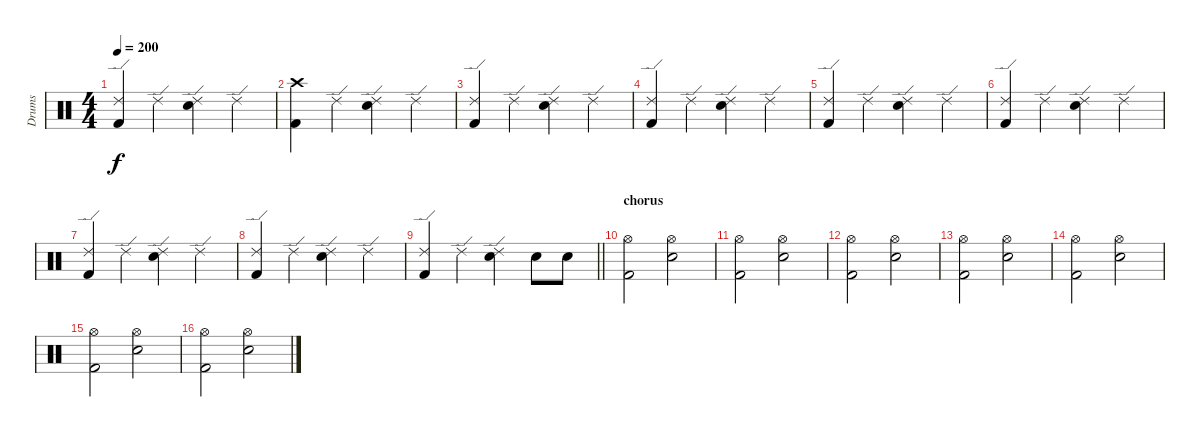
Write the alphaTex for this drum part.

\track ("Drums" "Drums") {instrument percussion}
\staff {score}
\articulation defaults
\ts (4 4)
\tempo 200
\clef neutral
\ks c
("Ride (edge) 2" "Kick (hit) 2").4{dy f} "Ride (edge) 2".4 ("Ride (edge) 2" "Electric Snare (hit)").4 "Ride (edge) 2".4 |
("Crash high (hit)" "Kick (hit) 2").4 "Ride (edge) 2".4 ("Ride (edge) 2" "Electric Snare (hit)").4 "Ride (edge) 2".4 |
("Ride (edge) 2" "Kick (hit) 2").4 "Ride (edge) 2".4 ("Ride (edge) 2" "Electric Snare (hit)").4 "Ride (edge) 2".4 |
("Ride (edge) 2" "Kick (hit) 2").4 "Ride (edge) 2".4 ("Ride (edge) 2" "Electric Snare (hit)").4 "Ride (edge) 2".4 |
("Ride (edge) 2" "Kick (hit) 2").4 "Ride (edge) 2".4 ("Ride (edge) 2" "Electric Snare (hit)").4 "Ride (edge) 2".4 |
("Ride (edge) 2" "Kick (hit) 2").4 "Ride (edge) 2".4 ("Ride (edge) 2" "Electric Snare (hit)").4 "Ride (edge) 2".4 |
("Ride (edge) 2" "Kick (hit) 2").4 "Ride (edge) 2".4 ("Ride (edge) 2" "Electric Snare (hit)").4 "Ride (edge) 2".4 |
("Ride (edge) 2" "Kick (hit) 2").4 "Ride (edge) 2".4 ("Ride (edge) 2" "Electric Snare (hit)").4 "Ride (edge) 2".4 |
\barLineRight lightlight
("Ride (edge) 2" "Kick (hit) 2").4 "Ride (edge) 2".4 ("Ride (edge) 2" "Electric Snare (hit)").4 "Electric Snare (hit)".8 "Electric Snare (hit)".8 |
\section ("" "chorus")
("Hi-Hat (open)" "Kick (hit) 2").2 ("Hi-Hat (open)" "Electric Snare (hit)").2 |
("Hi-Hat (open)" "Kick (hit) 2").2 ("Hi-Hat (open)" "Electric Snare (hit)").2 |
("Hi-Hat (open)" "Kick (hit) 2").2 ("Hi-Hat (open)" "Electric Snare (hit)").2 |
("Hi-Hat (open)" "Kick (hit) 2").2 ("Hi-Hat (open)" "Electric Snare (hit)").2 |
("Hi-Hat (open)" "Kick (hit) 2").2 ("Hi-Hat (open)" "Electric Snare (hit)").2 |
("Hi-Hat (open)" "Kick (hit) 2").2 ("Hi-Hat (open)" "Electric Snare (hit)").2 |
("Hi-Hat (open)" "Kick (hit) 2").2 ("Hi-Hat (open)" "Electric Snare (hit)").2
